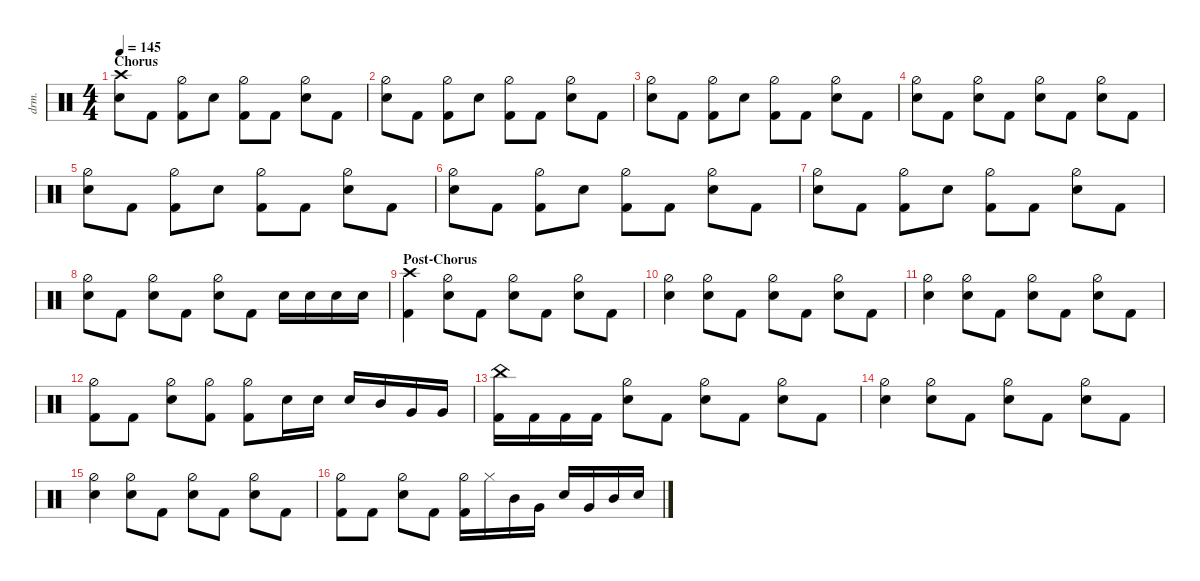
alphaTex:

\defaultSystemsLayout 4
\hideDynamics
\bracketExtendMode nobrackets
\track ("Drums - Mario" "drm.") {instrument percussion}
\staff {score}
\articulation defaults
\ts (4 4)
\section ("" "Chorus")
\tempo 145
\clef neutral
\ks c
("Snare (hit) 2" "Crash high (hit)").8{dy ff beam Down} "Kick (hit) 2".8{beam Down} ("Kick (hit) 2" "Hi-Hat (half)").8{beam Down} "Snare (hit) 2".8{beam Down} ("Kick (hit) 2" "Hi-Hat (half)").8{beam Down} "Kick (hit) 2".8{beam Down} ("Snare (hit) 2" "Hi-Hat (half)").8{beam Down} "Kick (hit) 2".8{beam Down} |
("Snare (hit) 2" "Hi-Hat (half)").8{beam Down} "Kick (hit) 2".8{beam Down} ("Kick (hit) 2" "Hi-Hat (half)").8{beam Down} "Snare (hit) 2".8{beam Down} ("Kick (hit) 2" "Hi-Hat (half)").8{beam Down} "Kick (hit) 2".8{beam Down} ("Snare (hit) 2" "Hi-Hat (half)").8{beam Down} "Kick (hit) 2".8{beam Down} |
("Snare (hit) 2" "Hi-Hat (half)").8{beam Down} "Kick (hit) 2".8{beam Down} ("Kick (hit) 2" "Hi-Hat (half)").8{beam Down} "Snare (hit) 2".8{beam Down} ("Kick (hit) 2" "Hi-Hat (half)").8{beam Down} "Kick (hit) 2".8{beam Down} ("Snare (hit) 2" "Hi-Hat (half)").8{beam Down} "Kick (hit) 2".8{beam Down} |
("Snare (hit) 2" "Hi-Hat (half)").8{beam Down} "Kick (hit) 2".8{beam Down} ("Snare (hit) 2" "Hi-Hat (half)").8{beam Down} "Kick (hit) 2".8{beam Down} ("Snare (hit) 2" "Hi-Hat (half)").8{beam Down} "Kick (hit) 2".8{beam Down} ("Snare (hit) 2" "Hi-Hat (half)").8{beam Down} "Kick (hit) 2".8{beam Down} |
("Snare (hit) 2" "Hi-Hat (half)").8{beam Down} "Kick (hit) 2".8{beam Down} ("Kick (hit) 2" "Hi-Hat (half)").8{beam Down} "Snare (hit) 2".8{beam Down} ("Kick (hit) 2" "Hi-Hat (half)").8{beam Down} "Kick (hit) 2".8{beam Down} ("Snare (hit) 2" "Hi-Hat (half)").8{beam Down} "Kick (hit) 2".8{beam Down} |
("Snare (hit) 2" "Hi-Hat (half)").8{beam Down} "Kick (hit) 2".8{beam Down} ("Kick (hit) 2" "Hi-Hat (half)").8{beam Down} "Snare (hit) 2".8{beam Down} ("Kick (hit) 2" "Hi-Hat (half)").8{beam Down} "Kick (hit) 2".8{beam Down} ("Snare (hit) 2" "Hi-Hat (half)").8{beam Down} "Kick (hit) 2".8{beam Down} |
("Snare (hit) 2" "Hi-Hat (half)").8{beam Down} "Kick (hit) 2".8{beam Down} ("Kick (hit) 2" "Hi-Hat (half)").8{beam Down} "Snare (hit) 2".8{beam Down} ("Kick (hit) 2" "Hi-Hat (half)").8{beam Down} "Kick (hit) 2".8{beam Down} ("Snare (hit) 2" "Hi-Hat (half)").8{beam Down} "Kick (hit) 2".8{beam Down} |
("Snare (hit) 2" "Hi-Hat (half)").8{beam Down} "Kick (hit) 2".8{beam Down} ("Snare (hit) 2" "Hi-Hat (half)").8{beam Down} "Kick (hit) 2".8{beam Down} ("Snare (hit) 2" "Hi-Hat (half)").8{beam Down} "Kick (hit) 2".8{beam Down} "Snare (hit) 2".16{beam Down} "Snare (hit) 2".16{beam Down} "Snare (hit) 2".16{beam Down} "Snare (hit) 2".16{beam Down} |
\section ("" "Post-Chorus")
("Kick (hit) 2" "Crash high (hit)").4{beam Down} ("Snare (hit) 2" "Hi-Hat (half)").8{beam Down} "Kick (hit) 2".8{beam Down} ("Snare (hit) 2" "Hi-Hat (half)").8{beam Down} "Kick (hit) 2".8{beam Down} ("Snare (hit) 2" "Hi-Hat (half)").8{beam Down} "Kick (hit) 2".8{beam Down} |
("Snare (hit) 2" "Hi-Hat (half)").4{beam Down} ("Snare (hit) 2" "Hi-Hat (half)").8{beam Down} "Kick (hit) 2".8{beam Down} ("Snare (hit) 2" "Hi-Hat (half)").8{beam Down} "Kick (hit) 2".8{beam Down} ("Snare (hit) 2" "Hi-Hat (half)").8{beam Down} "Kick (hit) 2".8{beam Down} |
("Snare (hit) 2" "Hi-Hat (half)").4{beam Down} ("Snare (hit) 2" "Hi-Hat (half)").8{beam Down} "Kick (hit) 2".8{beam Down} ("Snare (hit) 2" "Hi-Hat (half)").8{beam Down} "Kick (hit) 2".8{beam Down} ("Snare (hit) 2" "Hi-Hat (half)").8{beam Down} "Kick (hit) 2".8{beam Down} |
("Hi-Hat (half)" "Kick (hit) 2").8{beam Down} "Kick (hit) 2".8{beam Down} ("Snare (hit) 2" "Hi-Hat (half)").8{beam Down} ("Kick (hit) 2" "Hi-Hat (half)").8{beam Down} ("Kick (hit) 2" "Hi-Hat (half)").8{beam Down} "Snare (hit) 2".16{beam Down} "Snare (hit) 2".16{beam Down} "Snare (hit) 2".16{beam Up} "Mid Tom (hit)".16{beam Up} "Very Low Tom (hit)".16{beam Up} "Very Low Tom (hit)".16{beam Up} |
("China (hit)" "Kick (hit) 2").16{beam Down} "Kick (hit) 2".16{beam Down} "Kick (hit) 2".16{beam Down} "Kick (hit) 2".16{beam Down} ("Snare (hit) 2" "Hi-Hat (half)").8{beam Down} "Kick (hit) 2".8{beam Down} ("Snare (hit) 2" "Hi-Hat (half)").8{beam Down} "Kick (hit) 2".8{beam Down} ("Snare (hit) 2" "Hi-Hat (half)").8{beam Down} "Kick (hit) 2".8{beam Down} |
("Snare (hit) 2" "Hi-Hat (half)").4{beam Down} ("Snare (hit) 2" "Hi-Hat (half)").8{beam Down} "Kick (hit) 2".8{beam Down} ("Snare (hit) 2" "Hi-Hat (half)").8{beam Down} "Kick (hit) 2".8{beam Down} ("Snare (hit) 2" "Hi-Hat (half)").8{beam Down} "Kick (hit) 2".8{beam Down} |
("Snare (hit) 2" "Hi-Hat (half)").4{beam Down} ("Snare (hit) 2" "Hi-Hat (half)").8{beam Down} "Kick (hit) 2".8{beam Down} ("Snare (hit) 2" "Hi-Hat (half)").8{beam Down} "Kick (hit) 2".8{beam Down} ("Snare (hit) 2" "Hi-Hat (half)").8{beam Down} "Kick (hit) 2".8{beam Down} |
("Hi-Hat (half)" "Kick (hit) 2").8{beam Down} "Kick (hit) 2".8{beam Down} ("Snare (hit) 2" "Hi-Hat (half)").8{beam Down} "Kick (hit) 2".8{beam Down} ("Kick (hit) 2" "Hi-Hat (half)").16{beam Down} "Hi-Hat (closed)".16{beam Down} "Mid Tom (hit)".16{beam Down} "Very Low Tom (hit)".16{beam Down} "Snare (hit) 2".16{beam Up} "Very Low Tom (hit)".16{beam Up} "Mid Tom (hit)".16{beam Up} "Snare (hit) 2".16{beam Up}
